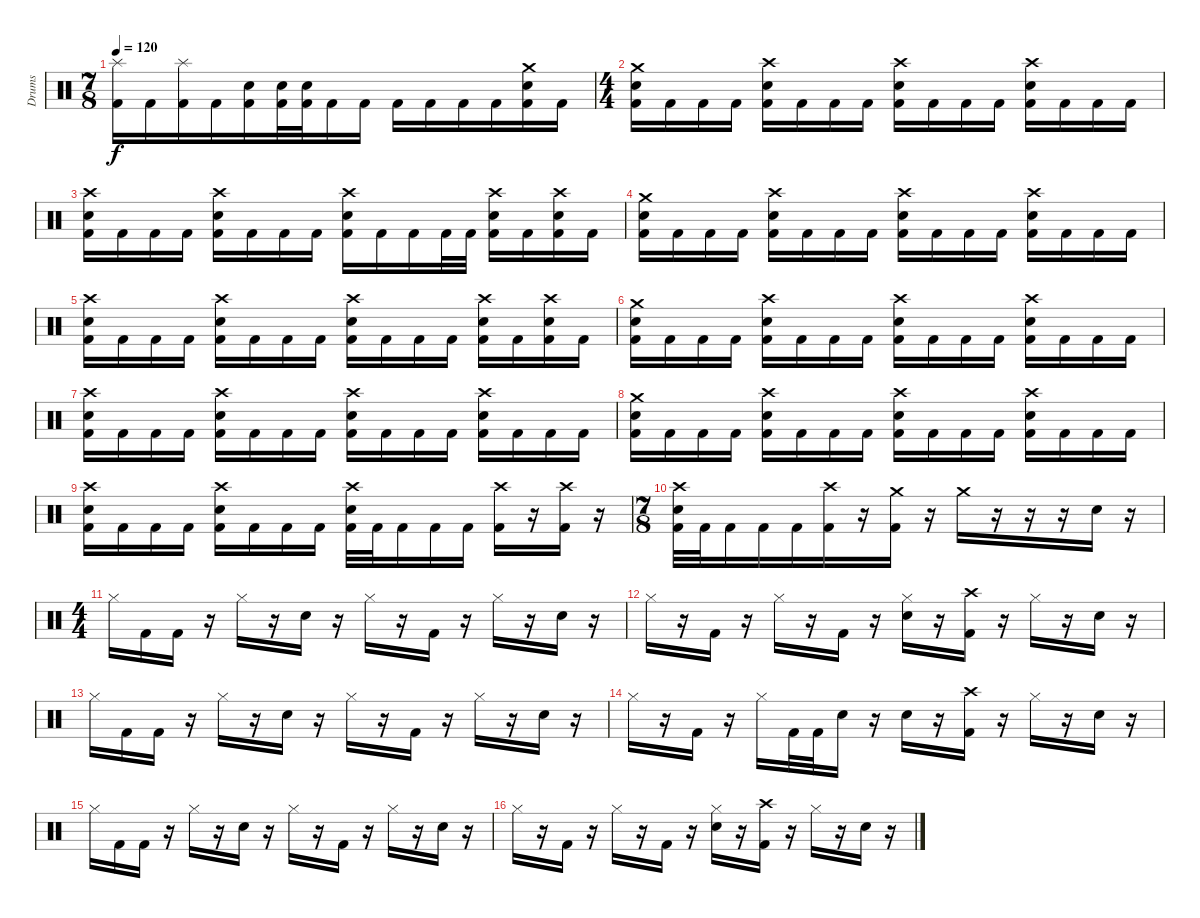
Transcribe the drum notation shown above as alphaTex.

\track ("Drums" "Drums") {instrument percussion}
\staff {score}
\articulation defaults
\ts (7 8)
\tempo 120
\clef neutral
\ks c
("Splash (hit)" "Kick (hit) 2").16{dy f} "Kick (hit) 2".16 ("Splash (hit)" "Kick (hit) 2").16 "Kick (hit) 2".16 ("Snare (hit) 2" "Kick (hit) 2").16 ("Snare (hit) 2" "Kick (hit) 2").32 ("Snare (hit) 2" "Kick (hit) 2").32 "Kick (hit) 2".16 "Kick (hit) 2".16 "Kick (hit) 2".16 "Kick (hit) 2".16 "Kick (hit) 2".16 "Kick (hit) 2".16 ("Crash medium (hit)" "Snare (hit) 2" "Kick (hit) 2").16 "Kick (hit) 2".16 |
\ts (4 4)
("Crash medium (hit)" "Snare (hit) 2" "Kick (hit) 2").16 "Kick (hit) 2".16 "Kick (hit) 2".16 "Kick (hit) 2".16 ("Crash high (hit)" "Snare (hit) 2" "Kick (hit) 2").16 "Kick (hit) 2".16 "Kick (hit) 2".16 "Kick (hit) 2".16 ("Crash high (hit)" "Snare (hit) 2" "Kick (hit) 2").16 "Kick (hit) 2".16 "Kick (hit) 2".16 "Kick (hit) 2".16 ("Crash high (hit)" "Snare (hit) 2" "Kick (hit) 2").16 "Kick (hit) 2".16 "Kick (hit) 2".16 "Kick (hit) 2".16 |
("Crash high (hit)" "Snare (hit) 2" "Kick (hit) 2").16 "Kick (hit) 2".16 "Kick (hit) 2".16 "Kick (hit) 2".16 ("Crash high (hit)" "Snare (hit) 2" "Kick (hit) 2").16 "Kick (hit) 2".16 "Kick (hit) 2".16 "Kick (hit) 2".16 ("Crash high (hit)" "Snare (hit) 2" "Kick (hit) 2").16 "Kick (hit) 2".16 "Kick (hit) 2".16 "Kick (hit) 2".32 "Kick (hit) 2".32 ("Crash high (hit)" "Snare (hit) 2" "Kick (hit) 2").16 "Kick (hit) 2".16 ("Crash high (hit)" "Snare (hit) 2" "Kick (hit) 2").16 "Kick (hit) 2".16 |
("Crash medium (hit)" "Snare (hit) 2" "Kick (hit) 2").16 "Kick (hit) 2".16 "Kick (hit) 2".16 "Kick (hit) 2".16 ("Crash high (hit)" "Snare (hit) 2" "Kick (hit) 2").16 "Kick (hit) 2".16 "Kick (hit) 2".16 "Kick (hit) 2".16 ("Crash high (hit)" "Snare (hit) 2" "Kick (hit) 2").16 "Kick (hit) 2".16 "Kick (hit) 2".16 "Kick (hit) 2".16 ("Crash high (hit)" "Snare (hit) 2" "Kick (hit) 2").16 "Kick (hit) 2".16 "Kick (hit) 2".16 "Kick (hit) 2".16 |
("Crash high (hit)" "Snare (hit) 2" "Kick (hit) 2").16 "Kick (hit) 2".16 "Kick (hit) 2".16 "Kick (hit) 2".16 ("Crash high (hit)" "Snare (hit) 2" "Kick (hit) 2").16 "Kick (hit) 2".16 "Kick (hit) 2".16 "Kick (hit) 2".16 ("Crash high (hit)" "Snare (hit) 2" "Kick (hit) 2").16 "Kick (hit) 2".16 "Kick (hit) 2".16 "Kick (hit) 2".16 ("Crash high (hit)" "Snare (hit) 2" "Kick (hit) 2").16 "Kick (hit) 2".16 ("Crash high (hit)" "Snare (hit) 2" "Kick (hit) 2").16 "Kick (hit) 2".16 |
("Crash medium (hit)" "Snare (hit) 2" "Kick (hit) 2").16 "Kick (hit) 2".16 "Kick (hit) 2".16 "Kick (hit) 2".16 ("Crash high (hit)" "Snare (hit) 2" "Kick (hit) 2").16 "Kick (hit) 2".16 "Kick (hit) 2".16 "Kick (hit) 2".16 ("Crash high (hit)" "Snare (hit) 2" "Kick (hit) 2").16 "Kick (hit) 2".16 "Kick (hit) 2".16 "Kick (hit) 2".16 ("Crash high (hit)" "Snare (hit) 2" "Kick (hit) 2").16 "Kick (hit) 2".16 "Kick (hit) 2".16 "Kick (hit) 2".16 |
("Crash high (hit)" "Snare (hit) 2" "Kick (hit) 2").16 "Kick (hit) 2".16 "Kick (hit) 2".16 "Kick (hit) 2".16 ("Crash high (hit)" "Snare (hit) 2" "Kick (hit) 2").16 "Kick (hit) 2".16 "Kick (hit) 2".16 "Kick (hit) 2".16 ("Crash high (hit)" "Snare (hit) 2" "Kick (hit) 2").16 "Kick (hit) 2".16 "Kick (hit) 2".16 "Kick (hit) 2".16 ("Crash high (hit)" "Snare (hit) 2" "Kick (hit) 2").16 "Kick (hit) 2".16 "Kick (hit) 2".16 "Kick (hit) 2".16 |
("Crash medium (hit)" "Snare (hit) 2" "Kick (hit) 2").16 "Kick (hit) 2".16 "Kick (hit) 2".16 "Kick (hit) 2".16 ("Crash high (hit)" "Snare (hit) 2" "Kick (hit) 2").16 "Kick (hit) 2".16 "Kick (hit) 2".16 "Kick (hit) 2".16 ("Crash high (hit)" "Snare (hit) 2" "Kick (hit) 2").16 "Kick (hit) 2".16 "Kick (hit) 2".16 "Kick (hit) 2".16 ("Crash high (hit)" "Snare (hit) 2" "Kick (hit) 2").16 "Kick (hit) 2".16 "Kick (hit) 2".16 "Kick (hit) 2".16 |
("Crash high (hit)" "Snare (hit) 2" "Kick (hit) 2").16 "Kick (hit) 2".16 "Kick (hit) 2".16 "Kick (hit) 2".16 ("Crash high (hit)" "Snare (hit) 2" "Kick (hit) 2").16 "Kick (hit) 2".16 "Kick (hit) 2".16 "Kick (hit) 2".16 ("Crash high (hit)" "Snare (hit) 2" "Kick (hit) 2").32 "Kick (hit) 2".32 "Kick (hit) 2".16 "Kick (hit) 2".16 "Kick (hit) 2".16 ("Crash high (hit)" "Kick (hit) 2").16 r.16 ("Crash high (hit)" "Kick (hit) 2").16 r.16 |
\ts (7 8)
("Crash high (hit)" "Snare (hit) 2" "Kick (hit) 2").32 "Kick (hit) 2".32 "Kick (hit) 2".16 "Kick (hit) 2".16 "Kick (hit) 2".16 ("Crash high (hit)" "Kick (hit) 2").16 r.16 ("Crash medium (hit)" "Kick (hit) 2").16 r.16 "Crash medium (hit)".16 r.16 r.16 r.16 "Snare (hit) 2".16 r.16 |
\ts (4 4)
"Hi-Hat (closed)".16 "Kick (hit) 2".16 "Kick (hit) 2".16 r.16 "Hi-Hat (closed)".16 r.16 "Snare (hit) 2".16 r.16 "Hi-Hat (closed)".16 r.16 "Kick (hit) 2".16 r.16 "Hi-Hat (closed)".16 r.16 "Snare (hit) 2".16 r.16 |
"Hi-Hat (closed)".16 r.16 "Kick (hit) 2".16 r.16 "Hi-Hat (closed)".16 r.16 "Kick (hit) 2".16 r.16 ("Hi-Hat (closed)" "Snare (hit) 2").16 r.16 ("Crash high (hit)" "Kick (hit) 2").16 r.16 "Hi-Hat (closed)".16 r.16 "Snare (hit) 2".16 r.16 |
"Hi-Hat (closed)".16 "Kick (hit) 2".16 "Kick (hit) 2".16 r.16 "Hi-Hat (closed)".16 r.16 "Snare (hit) 2".16 r.16 "Hi-Hat (closed)".16 r.16 "Kick (hit) 2".16 r.16 "Hi-Hat (closed)".16 r.16 "Snare (hit) 2".16 r.16 |
"Hi-Hat (closed)".16 r.16 "Kick (hit) 2".16 r.16 "Hi-Hat (closed)".16 "Kick (hit) 2".32 "Kick (hit) 2".32 "Snare (hit) 2".16 r.16 "Snare (hit) 2".16 r.16 ("Crash high (hit)" "Kick (hit) 2").16 r.16 "Hi-Hat (closed)".16 r.16 "Snare (hit) 2".16 r.16 |
"Hi-Hat (closed)".16 "Kick (hit) 2".16 "Kick (hit) 2".16 r.16 "Hi-Hat (closed)".16 r.16 "Snare (hit) 2".16 r.16 "Hi-Hat (closed)".16 r.16 "Kick (hit) 2".16 r.16 "Hi-Hat (closed)".16 r.16 "Snare (hit) 2".16 r.16 |
"Hi-Hat (closed)".16 r.16 "Kick (hit) 2".16 r.16 "Hi-Hat (closed)".16 r.16 "Kick (hit) 2".16 r.16 ("Hi-Hat (closed)" "Snare (hit) 2").16 r.16 ("Crash high (hit)" "Kick (hit) 2").16 r.16 "Hi-Hat (closed)".16 r.16 "Snare (hit) 2".16 r.16
